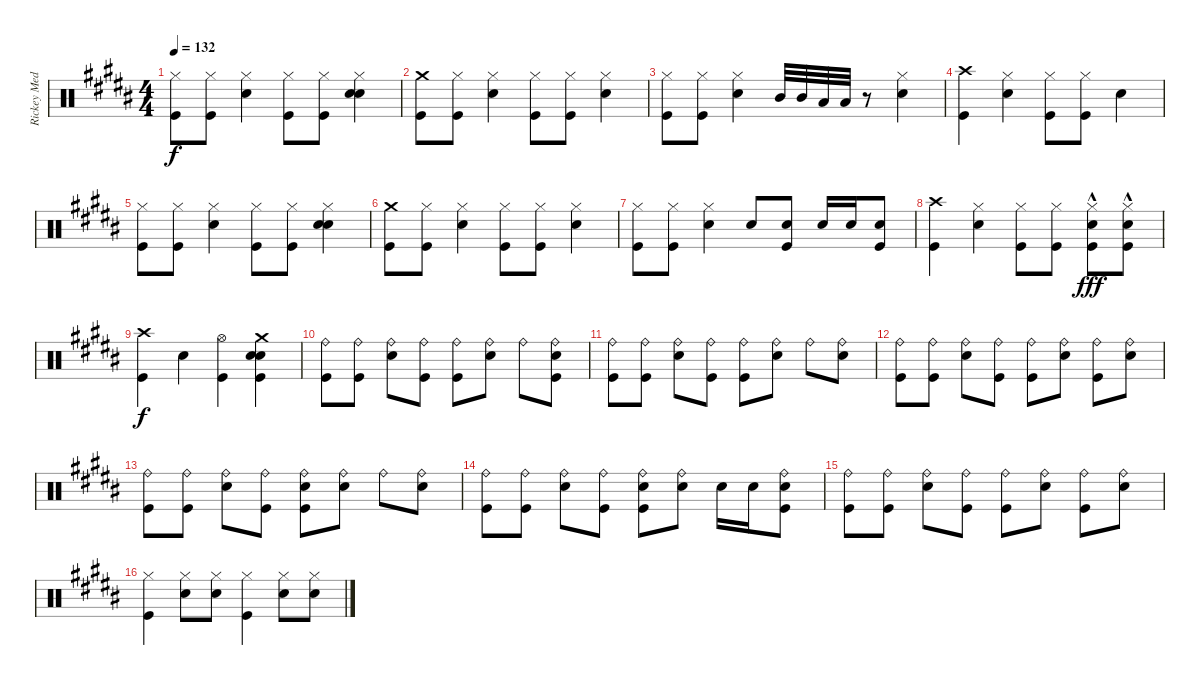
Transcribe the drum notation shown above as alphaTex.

\track ("Rickey Medlocke Drums" "Rickey Med") {instrument percussion}
\staff {score}
\articulation defaults
\ts (4 4)
\tempo 132
\clef neutral
\ks b
("Hi-Hat (closed)" "Kick (hit)").8{dy f} ("Hi-Hat (closed)" "Kick (hit)").8 ("Hi-Hat (closed)" "Snare (hit) 2").4 ("Hi-Hat (closed)" "Kick (hit)").8 ("Hi-Hat (closed)" "Kick (hit)").8 ("Hi-Hat (closed)" "Snare (hit) 2" "Hand Clap (hit)").4 |
("Crash medium (hit)" "Kick (hit)").8 ("Hi-Hat (closed)" "Kick (hit)").8 ("Hi-Hat (closed)" "Snare (hit) 2").4 ("Hi-Hat (closed)" "Kick (hit)").8 ("Hi-Hat (closed)" "Kick (hit)").8 ("Hi-Hat (closed)" "Snare (hit) 2").4 |
("Hi-Hat (closed)" "Kick (hit)").8 ("Hi-Hat (closed)" "Kick (hit)").8 ("Hi-Hat (closed)" "Snare (hit) 2").4 "Mid Tom (hit)".32 "Mid Tom (hit)".32 "Low Tom (hit)".32 "Low Tom (hit)".32 r.8 ("Hi-Hat (closed)" "Snare (hit) 2").4 |
("Crash high (hit)" "Kick (hit)").4 ("Hi-Hat (closed)" "Snare (hit) 2").4 ("Hi-Hat (closed)" "Kick (hit)").8 ("Hi-Hat (closed)" "Kick (hit)").8 "Snare (hit) 2".4 |
("Hi-Hat (closed)" "Kick (hit)").8 ("Hi-Hat (closed)" "Kick (hit)").8 ("Hi-Hat (closed)" "Snare (hit) 2").4 ("Hi-Hat (closed)" "Kick (hit)").8 ("Hi-Hat (closed)" "Kick (hit)").8 ("Hi-Hat (closed)" "Snare (hit) 2" "Hand Clap (hit)").4 |
("Crash medium (hit)" "Kick (hit)").8 ("Hi-Hat (closed)" "Kick (hit)").8 ("Hi-Hat (closed)" "Snare (hit) 2").4 ("Hi-Hat (closed)" "Kick (hit)").8 ("Hi-Hat (closed)" "Kick (hit)").8 ("Hi-Hat (closed)" "Snare (hit) 2").4 |
("Hi-Hat (closed)" "Kick (hit)").8 ("Hi-Hat (closed)" "Kick (hit)").8 ("Hi-Hat (closed)" "Snare (hit) 2").4 "Snare (hit) 2".8 ("Snare (hit) 2" "Kick (hit)").8 "Snare (hit) 2".16 "Snare (hit) 2".16 ("Snare (hit) 2" "Kick (hit)").8 |
("Crash high (hit)" "Kick (hit)").4 ("Hi-Hat (closed)" "Snare (hit) 2").4 ("Hi-Hat (closed)" "Kick (hit)").8 ("Hi-Hat (closed)" "Kick (hit)").8 ("Hi-Hat (closed)"{hac} "Snare (hit) 2" "Kick (hit)").8{dy fff} ("Hi-Hat (closed)"{hac} "Snare (hit) 2" "Kick (hit)").8 |
("Crash high (hit)" "Kick (hit)").4{dy f} "Snare (hit) 2".4 ("Hi-Hat (open)" "Kick (hit)").4 ("Crash medium (hit)" "Snare (hit) 2" "Hand Clap (hit)" "Kick (hit)").4 |
("Ride (bell)" "Kick (hit)").8 ("Ride (bell)" "Kick (hit)").8 ("Ride (bell)" "Snare (hit) 2").8 ("Ride (bell)" "Kick (hit)").8 ("Ride (bell)" "Kick (hit)").8 ("Ride (bell)" "Snare (hit) 2").8 "Ride (bell)".8 ("Ride (bell)" "Snare (hit) 2" "Kick (hit)").8 |
("Ride (bell)" "Kick (hit)").8 ("Ride (bell)" "Kick (hit)").8 ("Ride (bell)" "Snare (hit) 2").8 ("Ride (bell)" "Kick (hit)").8 ("Ride (bell)" "Kick (hit)").8 ("Ride (bell)" "Snare (hit) 2").8 "Ride (bell)".8 ("Ride (bell)" "Snare (hit) 2").8 |
("Ride (bell)" "Kick (hit)").8 ("Ride (bell)" "Kick (hit)").8 ("Ride (bell)" "Snare (hit) 2").8 ("Ride (bell)" "Kick (hit)").8 ("Ride (bell)" "Kick (hit)").8 ("Ride (bell)" "Snare (hit) 2").8 ("Ride (bell)" "Kick (hit)").8 ("Ride (bell)" "Snare (hit) 2").8 |
("Ride (bell)" "Kick (hit)").8 ("Ride (bell)" "Kick (hit)").8 ("Ride (bell)" "Snare (hit) 2").8 ("Ride (bell)" "Kick (hit)").8 ("Ride (bell)" "Snare (hit) 2" "Kick (hit)").8 ("Ride (bell)" "Snare (hit) 2").8 "Ride (bell)".8 ("Ride (bell)" "Snare (hit) 2").8 |
("Ride (bell)" "Kick (hit)").8 ("Ride (bell)" "Kick (hit)").8 ("Ride (bell)" "Snare (hit) 2").8 ("Ride (bell)" "Kick (hit)").8 ("Ride (bell)" "Snare (hit) 2" "Kick (hit)").8 ("Ride (bell)" "Snare (hit) 2").8 "Snare (hit) 2".16 "Snare (hit) 2".16 ("Ride (bell)" "Snare (hit) 2" "Kick (hit)").8 |
("Ride (bell)" "Kick (hit)").8 ("Ride (bell)" "Kick (hit)").8 ("Ride (bell)" "Snare (hit) 2").8 ("Ride (bell)" "Kick (hit)").8 ("Ride (bell)" "Kick (hit)").8 ("Ride (bell)" "Snare (hit) 2").8 ("Ride (bell)" "Kick (hit)").8 ("Ride (bell)" "Snare (hit) 2").8 |
("Hi-Hat (closed)" "Kick (hit)").4 ("Hi-Hat (closed)" "Snare (hit) 2").8 ("Hi-Hat (closed)" "Snare (hit) 2").8 ("Hi-Hat (closed)" "Kick (hit)").4 ("Hi-Hat (closed)" "Snare (hit) 2").8 ("Hi-Hat (closed)" "Snare (hit) 2").8
